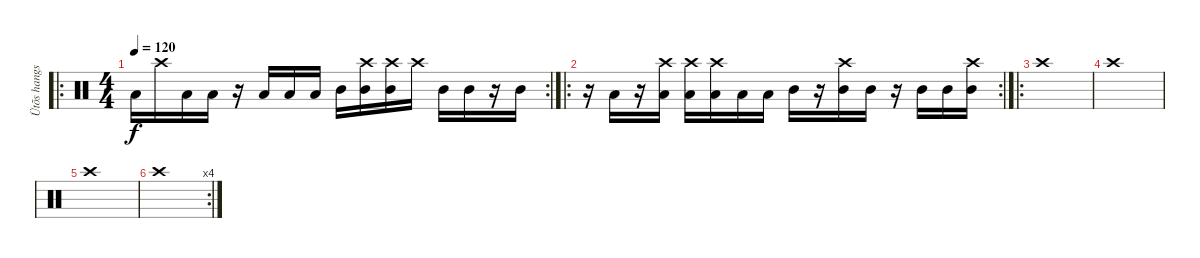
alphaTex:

\track ("Ütõs hangszer" "Ütõs hangs") {instrument percussion}
\staff {score}
\articulation defaults
\ro
\rc 2
\ts (4 4)
\tempo 120
\clef neutral
\ks c "Low Tom (hit)".16{dy f} "Crash high (hit)".16 "Low Tom (hit)".16 "Low Tom (hit)".16
r.16 "Low Tom (hit)".16 "Low Tom (hit)".16 "Low Tom (hit)".16 "Mid Tom (hit)".16 ("Mid Tom (hit)" "Crash high (hit)").16 ("Mid Tom (hit)" "Crash high (hit)").16 "Crash high (hit)".16 "Mid Tom (hit)".16 "Mid Tom (hit)".16 r.16 "Mid Tom (hit)".16 |
\ro
\rc 2
r.16 "Low Tom (hit)".16 r.16 ("Low Tom (hit)" "Crash high (hit)").16 ("Low Tom (hit)" "Crash high (hit)").16 ("Low Tom (hit)" "Crash high (hit)").16 "Low Tom (hit)".16 "Low Tom (hit)".16 "Mid Tom (hit)".16 r.16 ("Mid Tom (hit)" "Crash high (hit)").16 "Mid Tom (hit)".16 r.16 "Mid Tom (hit)".16 "Mid Tom (hit)".16 ("Mid Tom (hit)" "Crash high (hit)").16 |
\ro "Crash high (hit)".1
|
"Crash high (hit)".1 |
"Crash high (hit)".1 |
\rc 4 "Crash high (hit)".1
